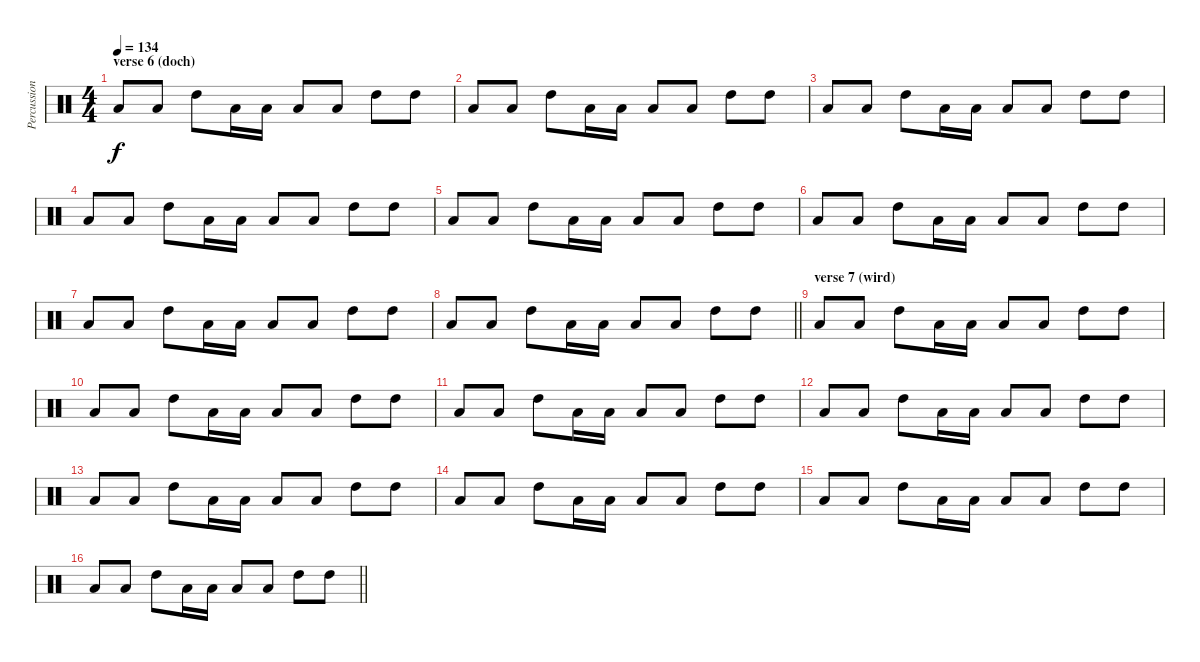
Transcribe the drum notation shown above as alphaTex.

\track ("Percussion" "Percussion") {instrument percussion}
\staff {score}
\articulation defaults
\ts (4 4)
\section ("" "verse 6 (doch)")
\tempo 134
\clef neutral
\ks c "Low Tom (hit)".8{dy f} "Low Tom (hit)".8 "High Tom (hit)".8 "Low Tom (hit)".16 "Low Tom (hit)".16 "Low Tom (hit)".8 "Low Tom (hit)".8 "High Tom (hit)".8 "High Tom (hit)".8
|
"Low Tom (hit)".8 "Low Tom (hit)".8 "High Tom (hit)".8 "Low Tom (hit)".16 "Low Tom (hit)".16 "Low Tom (hit)".8 "Low Tom (hit)".8 "High Tom (hit)".8 "High Tom (hit)".8 |
"Low Tom (hit)".8 "Low Tom (hit)".8 "High Tom (hit)".8 "Low Tom (hit)".16 "Low Tom (hit)".16 "Low Tom (hit)".8 "Low Tom (hit)".8 "High Tom (hit)".8 "High Tom (hit)".8 |
"Low Tom (hit)".8 "Low Tom (hit)".8 "High Tom (hit)".8 "Low Tom (hit)".16 "Low Tom (hit)".16 "Low Tom (hit)".8 "Low Tom (hit)".8 "High Tom (hit)".8 "High Tom (hit)".8 |
"Low Tom (hit)".8 "Low Tom (hit)".8 "High Tom (hit)".8 "Low Tom (hit)".16 "Low Tom (hit)".16 "Low Tom (hit)".8 "Low Tom (hit)".8 "High Tom (hit)".8 "High Tom (hit)".8 |
"Low Tom (hit)".8 "Low Tom (hit)".8 "High Tom (hit)".8 "Low Tom (hit)".16 "Low Tom (hit)".16 "Low Tom (hit)".8 "Low Tom (hit)".8 "High Tom (hit)".8 "High Tom (hit)".8 |
"Low Tom (hit)".8 "Low Tom (hit)".8 "High Tom (hit)".8 "Low Tom (hit)".16 "Low Tom (hit)".16 "Low Tom (hit)".8 "Low Tom (hit)".8 "High Tom (hit)".8 "High Tom (hit)".8 |
\barLineRight lightlight "Low Tom (hit)".8 "Low Tom (hit)".8 "High Tom (hit)".8 "Low Tom (hit)".16 "Low Tom (hit)".16 "Low Tom (hit)".8 "Low Tom (hit)".8 "High Tom (hit)".8 "High Tom (hit)".8
|
\section ("" "verse 7 (wird)")
"Low Tom (hit)".8 "Low Tom (hit)".8 "High Tom (hit)".8 "Low Tom (hit)".16 "Low Tom (hit)".16 "Low Tom (hit)".8 "Low Tom (hit)".8 "High Tom (hit)".8 "High Tom (hit)".8 |
"Low Tom (hit)".8 "Low Tom (hit)".8 "High Tom (hit)".8 "Low Tom (hit)".16 "Low Tom (hit)".16 "Low Tom (hit)".8 "Low Tom (hit)".8 "High Tom (hit)".8 "High Tom (hit)".8 |
"Low Tom (hit)".8 "Low Tom (hit)".8 "High Tom (hit)".8 "Low Tom (hit)".16 "Low Tom (hit)".16 "Low Tom (hit)".8 "Low Tom (hit)".8 "High Tom (hit)".8 "High Tom (hit)".8 |
"Low Tom (hit)".8 "Low Tom (hit)".8 "High Tom (hit)".8 "Low Tom (hit)".16 "Low Tom (hit)".16 "Low Tom (hit)".8 "Low Tom (hit)".8 "High Tom (hit)".8 "High Tom (hit)".8 |
"Low Tom (hit)".8 "Low Tom (hit)".8 "High Tom (hit)".8 "Low Tom (hit)".16 "Low Tom (hit)".16 "Low Tom (hit)".8 "Low Tom (hit)".8 "High Tom (hit)".8 "High Tom (hit)".8 |
"Low Tom (hit)".8 "Low Tom (hit)".8 "High Tom (hit)".8 "Low Tom (hit)".16 "Low Tom (hit)".16 "Low Tom (hit)".8 "Low Tom (hit)".8 "High Tom (hit)".8 "High Tom (hit)".8 |
"Low Tom (hit)".8 "Low Tom (hit)".8 "High Tom (hit)".8 "Low Tom (hit)".16 "Low Tom (hit)".16 "Low Tom (hit)".8 "Low Tom (hit)".8 "High Tom (hit)".8 "High Tom (hit)".8 |
\barLineRight lightlight "Low Tom (hit)".8 "Low Tom (hit)".8 "High Tom (hit)".8 "Low Tom (hit)".16 "Low Tom (hit)".16 "Low Tom (hit)".8 "Low Tom (hit)".8 "High Tom (hit)".8 "High Tom (hit)".8
